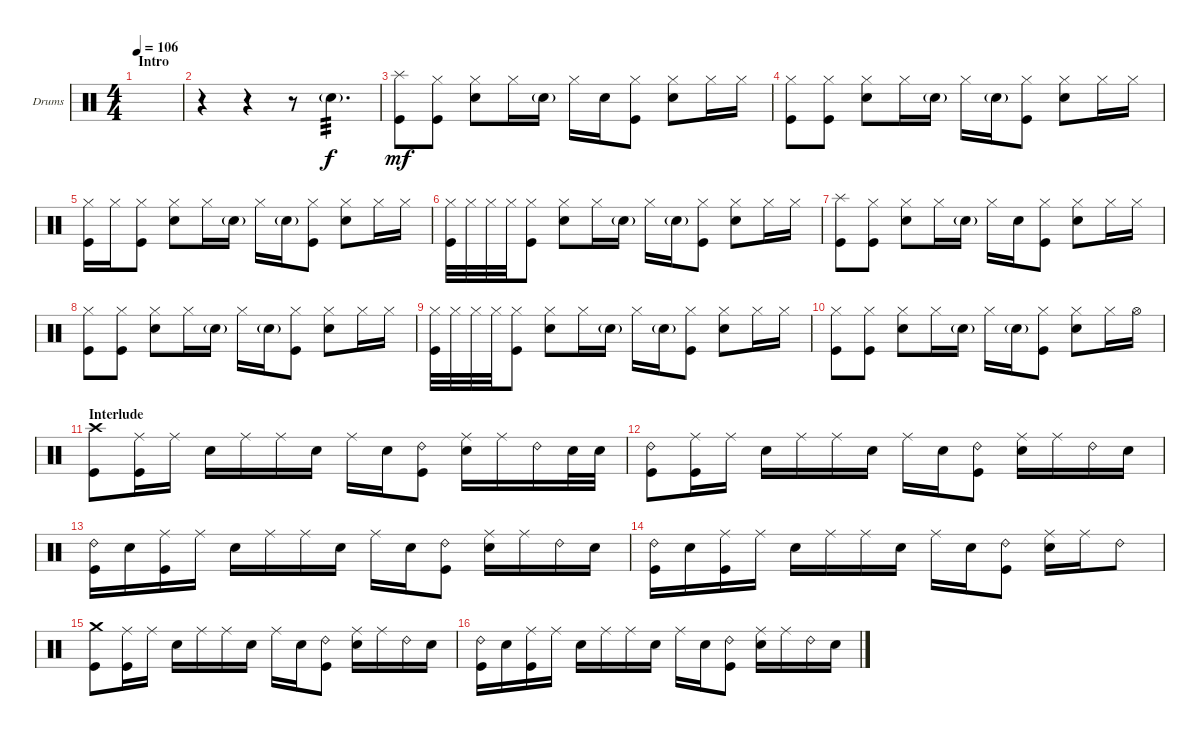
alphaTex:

\defaultSystemsLayout 4
\bracketExtendMode groupsimilarinstruments
\firstSystemTrackNameOrientation horizontal
\otherSystemsTrackNameOrientation horizontal
\track ("Drumkit" "Drums") {mute instrument percussion}
\staff {score}
\articulation defaults
\ts (4 4)
\section ("" "Intro")
\tempo 106
\clef neutral
\scale
0.474178
\ks c
|
\scale
0.262911 r.4 r.4 r.8 "Snare (hit) 2"{g}.4{d tp 3} |
\scale
0.262911 ("Kick (hit)" "Splash (hit)").8{dy mf} ("Kick (hit)" "Hi-Hat (closed)").8 ("Snare (hit) 2" "Hi-Hat (closed)").8 "Hi-Hat (closed)".16 "Snare (hit) 2"{g}.16 "Hi-Hat (closed)".16 "Snare (hit) 2".16 ("Kick (hit)" "Hi-Hat (closed)").8 ("Snare (hit) 2" "Hi-Hat (closed)").8 "Hi-Hat (closed)".16 "Hi-Hat (closed)".16 |
\scale
0.333333 ("Kick (hit)" "Hi-Hat (closed)").8 ("Kick (hit)" "Hi-Hat (closed)").8 ("Snare (hit) 2" "Hi-Hat (closed)").8 "Hi-Hat (closed)".16 "Snare (hit) 2"{g}.16 "Hi-Hat (closed)".16 "Snare (hit) 2"{g}.16 ("Kick (hit)" "Hi-Hat (closed)").8 ("Snare (hit) 2" "Hi-Hat (closed)").8 "Hi-Hat (closed)".16 "Hi-Hat (closed)".16 |
\scale
0.333333 ("Kick (hit)" "Hi-Hat (closed)").16 "Hi-Hat (closed)".16 ("Kick (hit)" "Hi-Hat (closed)").8 ("Snare (hit) 2" "Hi-Hat (closed)").8 "Hi-Hat (closed)".16 "Snare (hit) 2"{g}.16 "Hi-Hat (closed)".16 "Snare (hit) 2"{g}.16 ("Kick (hit)" "Hi-Hat (closed)").8 ("Snare (hit) 2" "Hi-Hat (closed)").8 "Hi-Hat (closed)".16 "Hi-Hat (closed)".16 |
\scale
0.333333 ("Hi-Hat (closed)" "Kick (hit)").32 "Hi-Hat (closed)".32 "Hi-Hat (closed)".32 "Hi-Hat (closed)".32 ("Kick (hit)" "Hi-Hat (closed)").8 ("Snare (hit) 2" "Hi-Hat (closed)").8 "Hi-Hat (closed)".16 "Snare (hit) 2"{g}.16 "Hi-Hat (closed)".16 "Snare (hit) 2"{g}.16 ("Kick (hit)" "Hi-Hat (closed)").8 ("Snare (hit) 2" "Hi-Hat (closed)").8 "Hi-Hat (closed)".16 "Hi-Hat (closed)".16 |
\scale
0.333333 ("Kick (hit)" "Splash (hit)").8 ("Kick (hit)" "Hi-Hat (closed)").8 ("Snare (hit) 2" "Hi-Hat (closed)").8 "Hi-Hat (closed)".16 "Snare (hit) 2"{g}.16 "Hi-Hat (closed)".16 "Snare (hit) 2".16 ("Kick (hit)" "Hi-Hat (closed)").8 ("Snare (hit) 2" "Hi-Hat (closed)").8 "Hi-Hat (closed)".16 "Hi-Hat (closed)".16 |
\scale
0.333333 ("Kick (hit)" "Hi-Hat (closed)").8 ("Kick (hit)" "Hi-Hat (closed)").8 ("Snare (hit) 2" "Hi-Hat (closed)").8 "Hi-Hat (closed)".16 "Snare (hit) 2"{g}.16 "Hi-Hat (closed)".16 "Snare (hit) 2"{g}.16 ("Kick (hit)" "Hi-Hat (closed)").8 ("Snare (hit) 2" "Hi-Hat (closed)").8 "Hi-Hat (closed)".16 "Hi-Hat (closed)".16 |
\scale
0.333333 ("Hi-Hat (closed)" "Kick (hit)").32 "Hi-Hat (closed)".32 "Hi-Hat (closed)".32 "Hi-Hat (closed)".32 ("Kick (hit)" "Hi-Hat (closed)").8 ("Snare (hit) 2" "Hi-Hat (closed)").8 "Hi-Hat (closed)".16 "Snare (hit) 2"{g}.16 "Hi-Hat (closed)".16 "Snare (hit) 2"{g}.16 ("Kick (hit)" "Hi-Hat (closed)").8 ("Snare (hit) 2" "Hi-Hat (closed)").8 "Hi-Hat (closed)".16 "Hi-Hat (closed)".16 |
\scale
0.333333 ("Kick (hit)" "Hi-Hat (closed)").8 ("Kick (hit)" "Hi-Hat (closed)").8 ("Snare (hit) 2" "Hi-Hat (closed)").8 "Hi-Hat (closed)".16 "Snare (hit) 2"{g}.16 "Hi-Hat (closed)".16 "Snare (hit) 2"{g}.16 ("Kick (hit)" "Hi-Hat (closed)").8 ("Snare (hit) 2" "Hi-Hat (closed)").8 "Hi-Hat (closed)".16 "Hi-Hat (open)".16 |
\section ("" "Interlude")
\scale
0.333333 ("Kick (hit)" "Crash high (hit)").8 ("Kick (hit)" "Ride (middle)").16 "Ride (middle)".16 "Snare (hit) 2".16 "Ride (middle)".16 "Ride (middle)".16 "Snare (hit) 2".16 "Ride (middle)".16 "Snare (hit) 2".16 ("Kick (hit)" "Ride (bell) 2").8 ("Snare (hit) 2" "Ride (middle)").16 "Ride (middle)".16 "Ride (bell) 2".16 "Snare (hit) 2".32 "Snare (hit) 2".32 |
\scale
0.333333 ("Kick (hit)" "Ride (bell) 2").8 ("Kick (hit)" "Ride (middle)").16 "Ride (middle)".16 "Snare (hit) 2".16 "Ride (middle)".16 "Ride (middle)".16 "Snare (hit) 2".16 "Ride (middle)".16 "Snare (hit) 2".16 ("Kick (hit)" "Ride (bell) 2").8 ("Snare (hit) 2" "Ride (middle)").16 "Ride (middle)".16 "Ride (bell) 2".16 "Snare (hit) 2".16 |
\scale
0.333333 ("Kick (hit)" "Ride (bell) 2").16 "Snare (hit) 2".16 ("Kick (hit)" "Ride (middle)").16 "Ride (middle)".16 "Snare (hit) 2".16 "Ride (middle)".16 "Ride (middle)".16 "Snare (hit) 2".16 "Ride (middle)".16 "Snare (hit) 2".16 ("Kick (hit)" "Ride (bell) 2").8 ("Snare (hit) 2" "Ride (middle)").16 "Ride (middle)".16 "Ride (bell) 2".16 "Snare (hit) 2".16 |
\scale
0.333333 ("Kick (hit)" "Ride (bell) 2").16 "Snare (hit) 2".16 ("Kick (hit)" "Ride (middle)").16 "Ride (middle)".16 "Snare (hit) 2".16 "Ride (middle)".16 "Ride (middle)".16 "Snare (hit) 2".16 "Ride (middle)".16 "Snare (hit) 2".16 ("Kick (hit)" "Ride (bell) 2").8 ("Snare (hit) 2" "Ride (middle)").16 "Ride (middle)".16 "Ride (bell) 2".8 |
\scale
0.333333 ("Kick (hit)" "Crash medium (hit)").8 ("Kick (hit)" "Ride (middle)").16 "Ride (middle)".16 "Snare (hit) 2".16 "Ride (middle)".16 "Ride (middle)".16 "Snare (hit) 2".16 "Ride (middle)".16 "Snare (hit) 2".16 ("Kick (hit)" "Ride (bell) 2").8 ("Snare (hit) 2" "Ride (middle)").16 "Ride (middle)".16 "Ride (bell) 2".16 "Snare (hit) 2".16 |
\scale
0.333333 ("Kick (hit)" "Ride (bell) 2").16 "Snare (hit) 2".16 ("Kick (hit)" "Ride (middle)").16 "Ride (middle)".16 "Snare (hit) 2".16 "Ride (middle)".16 "Ride (middle)".16 "Snare (hit) 2".16 "Ride (middle)".16 "Snare (hit) 2".16 ("Kick (hit)" "Ride (bell) 2").8 ("Snare (hit) 2" "Ride (middle)").16 "Ride (middle)".16 "Ride (bell) 2".16 "Snare (hit) 2".16
